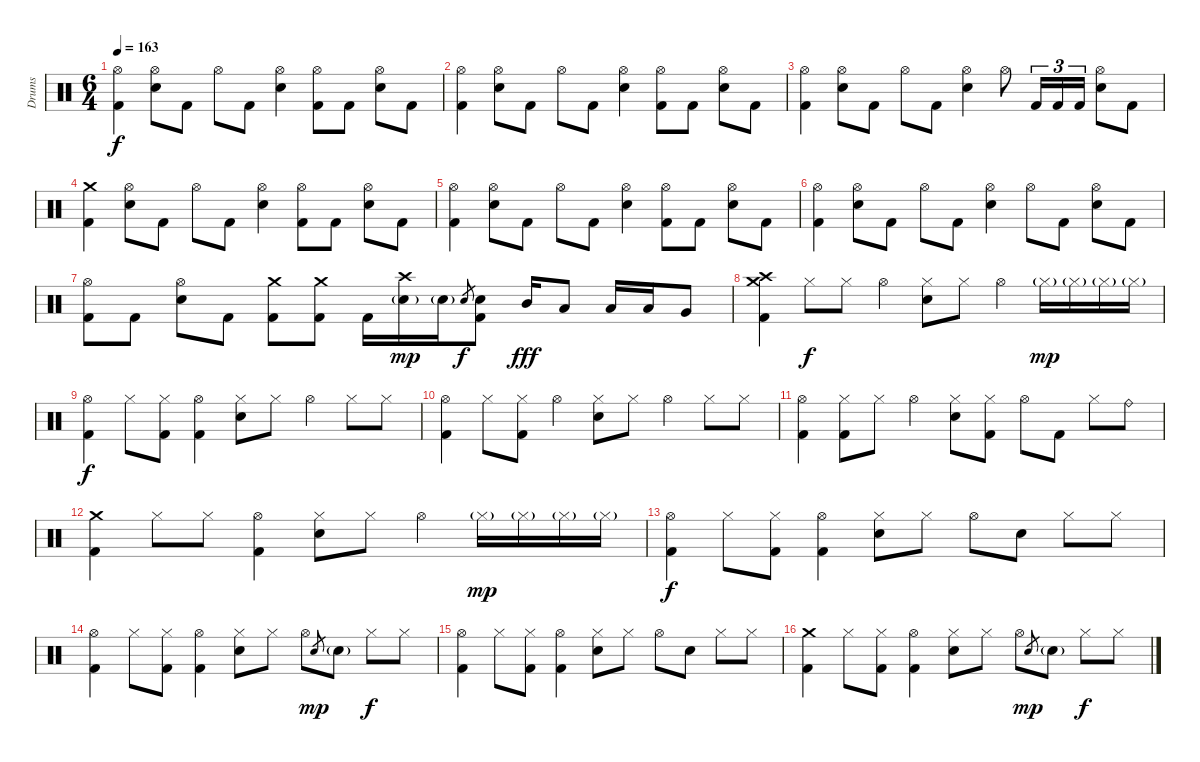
\track ("Drums" "Drums") {instrument percussion}
\staff {score}
\articulation defaults
\ts (6 4)
\tempo 163
\clef neutral
\ks c
("Hi-Hat (open)" "Kick (hit) 2").4{dy f} ("Hi-Hat (open)" "Electric Snare (hit)").8 "Kick (hit) 2".8 "Hi-Hat (open)".8 "Kick (hit) 2".8 ("Hi-Hat (open)" "Electric Snare (hit)").4 ("Hi-Hat (open)" "Kick (hit) 2").8 "Kick (hit) 2".8 ("Hi-Hat (open)" "Electric Snare (hit)").8 "Kick (hit) 2".8 |
("Hi-Hat (open)" "Kick (hit) 2").4 ("Hi-Hat (open)" "Electric Snare (hit)").8 "Kick (hit) 2".8 "Hi-Hat (open)".8 "Kick (hit) 2".8 ("Hi-Hat (open)" "Electric Snare (hit)").4 ("Hi-Hat (open)" "Kick (hit) 2").8 "Kick (hit) 2".8 ("Hi-Hat (open)" "Electric Snare (hit)").8 "Kick (hit) 2".8 |
("Hi-Hat (open)" "Kick (hit) 2").4 ("Hi-Hat (open)" "Electric Snare (hit)").8 "Kick (hit) 2".8 "Hi-Hat (open)".8 "Kick (hit) 2".8 ("Hi-Hat (open)" "Electric Snare (hit)").4 "Hi-Hat (open)".8 "Kick (hit) 2".16{tu (3 2)} "Kick (hit) 2".16{tu (3 2)} "Kick (hit) 2".16{tu (3 2)} ("Hi-Hat (open)" "Electric Snare (hit)").8 "Kick (hit) 2".8 |
("Crash medium (hit)" "Kick (hit) 2").4 ("Hi-Hat (open)" "Electric Snare (hit)").8 "Kick (hit) 2".8 "Hi-Hat (open)".8 "Kick (hit) 2".8 ("Hi-Hat (open)" "Electric Snare (hit)").4 ("Hi-Hat (open)" "Kick (hit) 2").8 "Kick (hit) 2".8 ("Hi-Hat (open)" "Electric Snare (hit)").8 "Kick (hit) 2".8 |
("Hi-Hat (open)" "Kick (hit) 2").4 ("Hi-Hat (open)" "Electric Snare (hit)").8 "Kick (hit) 2".8 "Hi-Hat (open)".8 "Kick (hit) 2".8 ("Hi-Hat (open)" "Electric Snare (hit)").4 ("Hi-Hat (open)" "Kick (hit) 2").8 "Kick (hit) 2".8 ("Hi-Hat (open)" "Electric Snare (hit)").8 "Kick (hit) 2".8 |
("Hi-Hat (open)" "Kick (hit) 2").4 ("Hi-Hat (open)" "Electric Snare (hit)").8 "Kick (hit) 2".8 "Hi-Hat (open)".8 "Kick (hit) 2".8 ("Hi-Hat (open)" "Electric Snare (hit)").4 "Hi-Hat (open)".8 "Kick (hit) 2".8 ("Hi-Hat (open)" "Electric Snare (hit)").8 "Kick (hit) 2".8 |
("Hi-Hat (open)" "Kick (hit) 2").8 "Kick (hit) 2".8 ("Hi-Hat (open)" "Electric Snare (hit)").8 "Kick (hit) 2".8 ("Crash medium (hit)" "Kick (hit) 2").8 ("Crash medium (hit)" "Kick (hit) 2").8 "Kick (hit) 2".16 ("Crash high (hit)" "Electric Snare (hit)"{g}).16{dy mp} "Electric Snare (hit)"{g}.16 "Electric Snare (hit)".8{gr dy f} ("Electric Snare (hit)" "Kick (hit) 2").8 "Mid Tom (hit)".16{dy fff} "Low Tom (hit)".8 "Low Tom (hit)".16 "Low Tom (hit)".16 "Very Low Tom (hit)".8 |
("Crash medium (hit)" "Crash high (hit)" "Kick (hit) 2").4 "Hi-Hat (closed)".8{dy f} "Hi-Hat (closed)".8 "Hi-Hat (open)".4 ("Hi-Hat (closed)" "Electric Snare (hit)").8 "Hi-Hat (closed)".8 "Hi-Hat (open)".4 "Hi-Hat (closed)"{g}.16{dy mp} "Hi-Hat (closed)"{g}.16 "Hi-Hat (closed)"{g}.16 "Hi-Hat (closed)"{g}.16 |
("Hi-Hat (open)" "Kick (hit) 2").4{dy f} "Hi-Hat (closed)".8 ("Hi-Hat (closed)" "Kick (hit) 2").8 ("Hi-Hat (open)" "Kick (hit) 2").4 ("Hi-Hat (closed)" "Electric Snare (hit)").8 "Hi-Hat (closed)".8 "Hi-Hat (open)".4 "Hi-Hat (closed)".8 "Hi-Hat (closed)".8 |
("Hi-Hat (open)" "Kick (hit) 2").4 "Hi-Hat (closed)".8 ("Hi-Hat (closed)" "Kick (hit) 2").8 "Hi-Hat (open)".4 ("Hi-Hat (closed)" "Electric Snare (hit)").8 "Hi-Hat (closed)".8 "Hi-Hat (open)".4 "Hi-Hat (closed)".8 "Hi-Hat (closed)".8 |
("Hi-Hat (open)" "Kick (hit) 2").4 ("Hi-Hat (closed)" "Kick (hit) 2").8 "Hi-Hat (closed)".8 "Hi-Hat (open)".4 ("Hi-Hat (closed)" "Electric Snare (hit)").8 ("Hi-Hat (closed)" "Kick (hit) 2").8 "Hi-Hat (open)".8 "Kick (hit) 2".8 "Hi-Hat (closed)".8 "Ride (bell)".8 |
("Crash medium (hit)" "Kick (hit) 2").4 "Hi-Hat (closed)".8 "Hi-Hat (closed)".8 ("Hi-Hat (open)" "Kick (hit) 2").4 ("Hi-Hat (closed)" "Electric Snare (hit)").8 "Hi-Hat (closed)".8 "Hi-Hat (open)".4 "Hi-Hat (closed)"{g}.16{dy mp} "Hi-Hat (closed)"{g}.16 "Hi-Hat (closed)"{g}.16 "Hi-Hat (closed)"{g}.16 |
("Hi-Hat (open)" "Kick (hit) 2").4{dy f} "Hi-Hat (closed)".8 ("Hi-Hat (closed)" "Kick (hit) 2").8 ("Hi-Hat (open)" "Kick (hit) 2").4 ("Hi-Hat (closed)" "Electric Snare (hit)").8 "Hi-Hat (closed)".8 "Hi-Hat (open)".8 "Electric Snare (hit)".8 "Hi-Hat (closed)".8 "Hi-Hat (closed)".8 |
("Hi-Hat (open)" "Kick (hit) 2").4 "Hi-Hat (closed)".8 ("Hi-Hat (closed)" "Kick (hit) 2").8 ("Hi-Hat (open)" "Kick (hit) 2").4 ("Hi-Hat (closed)" "Electric Snare (hit)").8 "Hi-Hat (closed)".8 "Hi-Hat (open)".8 "Electric Snare (hit)".8{gr dy mp} "Electric Snare (hit)"{g}.8 "Hi-Hat (closed)".8{dy f} "Hi-Hat (closed)".8 |
("Hi-Hat (open)" "Kick (hit) 2").4 "Hi-Hat (closed)".8 ("Hi-Hat (closed)" "Kick (hit) 2").8 ("Hi-Hat (open)" "Kick (hit) 2").4 ("Hi-Hat (closed)" "Electric Snare (hit)").8 "Hi-Hat (closed)".8 "Hi-Hat (open)".8 "Electric Snare (hit)".8 "Hi-Hat (closed)".8 "Hi-Hat (closed)".8 |
("Crash medium (hit)" "Kick (hit) 2").4 "Hi-Hat (closed)".8 ("Hi-Hat (closed)" "Kick (hit) 2").8 ("Hi-Hat (open)" "Kick (hit) 2").4 ("Hi-Hat (closed)" "Electric Snare (hit)").8 "Hi-Hat (closed)".8 "Hi-Hat (open)".8 "Electric Snare (hit)".8{gr dy mp} "Electric Snare (hit)"{g}.8 "Hi-Hat (closed)".8{dy f} "Hi-Hat (closed)".8
